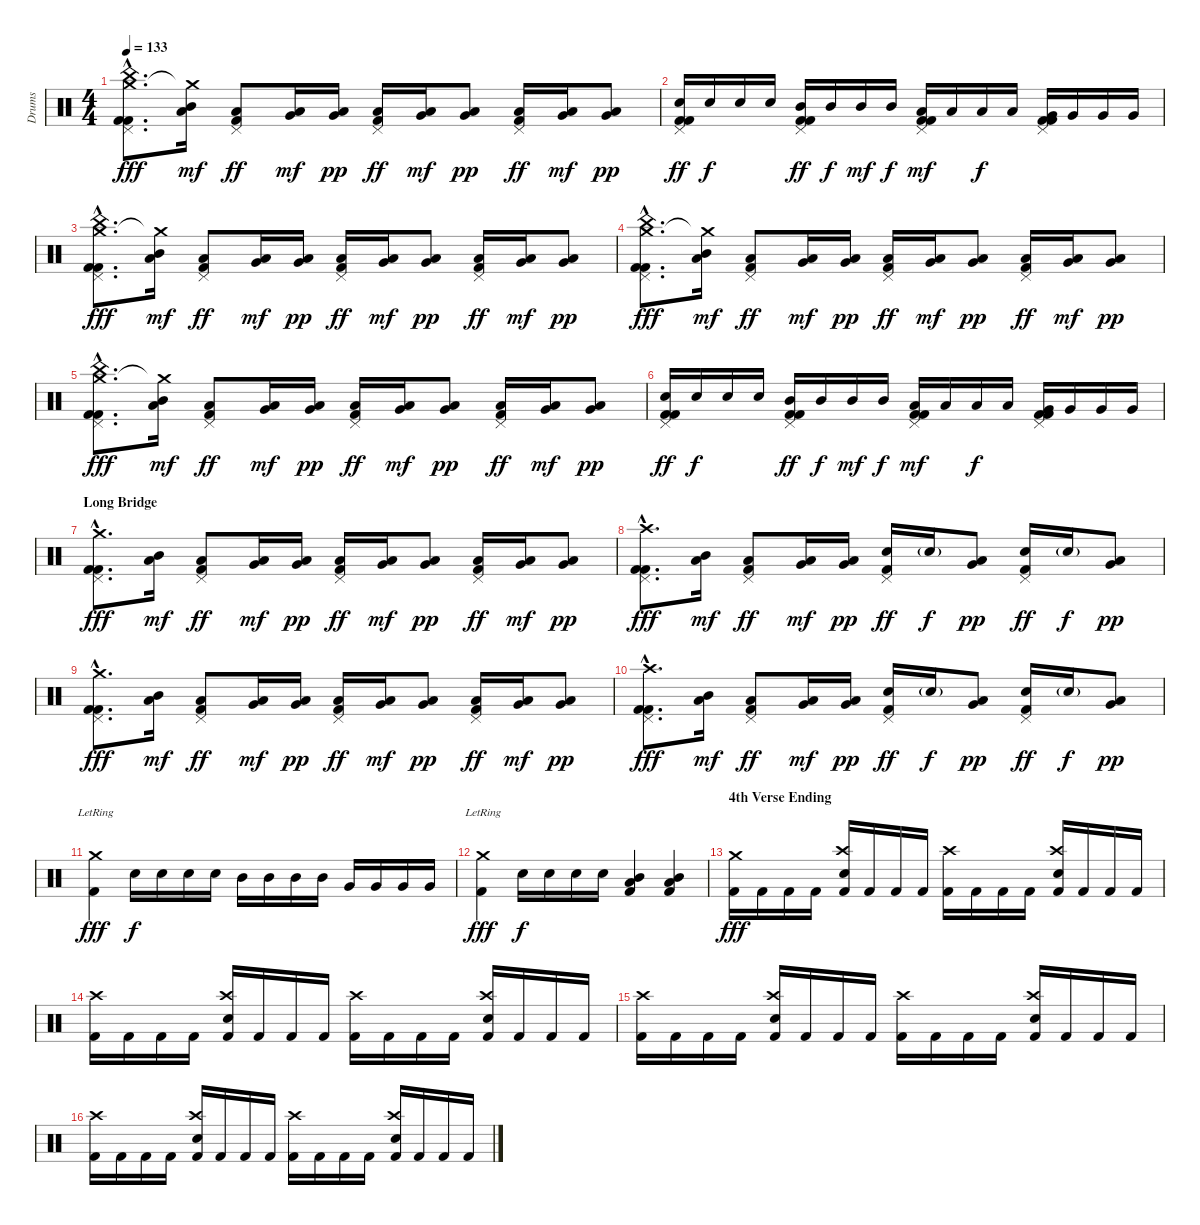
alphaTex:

\track ("Drums" "Drums") {instrument percussion}
\staff {score}
\articulation defaults
\ts (4 4)
\tempo 133
\clef neutral
\ks c
("Crash medium (hit)"{hac} "China (hit)"{hac} "Pedal Hi-Hat (hit)"{hac} "Kick (hit) 2"{hac} "Kick (hit) 2"{hac}).8{d dy fff} ("Crash medium (hit)"{t} "Mid Tom (hit)" "Low Tom (hit)").16{dy mf} ("Pedal Hi-Hat (hit)" "Low Tom (hit)" "Kick (hit) 2").8{dy ff} ("Low Tom (hit)" "Very Low Tom (hit)").16{dy mf} ("Low Tom (hit)" "Very Low Tom (hit)").16{dy pp} ("Pedal Hi-Hat (hit)" "Low Tom (hit)" "Kick (hit) 2").16{dy ff} ("Low Tom (hit)" "Very Low Tom (hit)").16{dy mf} ("Low Tom (hit)" "Very Low Tom (hit)").8{dy pp} ("Pedal Hi-Hat (hit)" "Low Tom (hit)" "Kick (hit) 2").16{dy ff} ("Low Tom (hit)" "Very Low Tom (hit)").16{dy mf} ("Low Tom (hit)" "Very Low Tom (hit)").8{dy pp} |
("Pedal Hi-Hat (hit)" "Electric Snare (hit)" "Kick (hit) 2" "Kick (hit) 2").16{dy ff} "Electric Snare (hit)".16{dy f} "Electric Snare (hit)".16 "Electric Snare (hit)".16 ("Pedal Hi-Hat (hit)" "Mid Tom (hit)" "Kick (hit) 2" "Kick (hit) 2").16{dy ff} "Mid Tom (hit)".16{dy f} "Mid Tom (hit)".16{dy mf} "Mid Tom (hit)".16{dy f} ("Pedal Hi-Hat (hit)" "Low Tom (hit)" "Kick (hit) 2" "Kick (hit) 2").16{dy mf} "Low Tom (hit)".16 "Low Tom (hit)".16{dy f} "Low Tom (hit)".16 ("Pedal Hi-Hat (hit)" "Very Low Tom (hit)" "Kick (hit) 2" "Kick (hit) 2").16 "Very Low Tom (hit)".16 "Very Low Tom (hit)".16 "Very Low Tom (hit)".16 |
("Crash medium (hit)"{hac} "China (hit)"{hac} "Pedal Hi-Hat (hit)"{hac} "Kick (hit) 2"{hac} "Kick (hit) 2"{hac}).8{d dy fff} ("Crash medium (hit)"{t} "Mid Tom (hit)" "Low Tom (hit)").16{dy mf} ("Pedal Hi-Hat (hit)" "Low Tom (hit)" "Kick (hit) 2").8{dy ff} ("Low Tom (hit)" "Very Low Tom (hit)").16{dy mf} ("Low Tom (hit)" "Very Low Tom (hit)").16{dy pp} ("Pedal Hi-Hat (hit)" "Low Tom (hit)" "Kick (hit) 2").16{dy ff} ("Low Tom (hit)" "Very Low Tom (hit)").16{dy mf} ("Low Tom (hit)" "Very Low Tom (hit)").8{dy pp} ("Pedal Hi-Hat (hit)" "Low Tom (hit)" "Kick (hit) 2").16{dy ff} ("Low Tom (hit)" "Very Low Tom (hit)").16{dy mf} ("Low Tom (hit)" "Very Low Tom (hit)").8{dy pp} |
("Crash medium (hit)"{hac} "China (hit)"{hac} "Pedal Hi-Hat (hit)"{hac} "Kick (hit) 2"{hac} "Kick (hit) 2"{hac}).8{d dy fff} ("Crash medium (hit)"{t} "Mid Tom (hit)" "Low Tom (hit)").16{dy mf} ("Pedal Hi-Hat (hit)" "Low Tom (hit)" "Kick (hit) 2").8{dy ff} ("Low Tom (hit)" "Very Low Tom (hit)").16{dy mf} ("Low Tom (hit)" "Very Low Tom (hit)").16{dy pp} ("Pedal Hi-Hat (hit)" "Low Tom (hit)" "Kick (hit) 2").16{dy ff} ("Low Tom (hit)" "Very Low Tom (hit)").16{dy mf} ("Low Tom (hit)" "Very Low Tom (hit)").8{dy pp} ("Pedal Hi-Hat (hit)" "Low Tom (hit)" "Kick (hit) 2").16{dy ff} ("Low Tom (hit)" "Very Low Tom (hit)").16{dy mf} ("Low Tom (hit)" "Very Low Tom (hit)").8{dy pp} |
("Crash medium (hit)"{hac} "China (hit)"{hac} "Pedal Hi-Hat (hit)"{hac} "Kick (hit) 2"{hac} "Kick (hit) 2"{hac}).8{d dy fff} ("Crash medium (hit)"{t} "Mid Tom (hit)" "Low Tom (hit)").16{dy mf} ("Pedal Hi-Hat (hit)" "Low Tom (hit)" "Kick (hit) 2").8{dy ff} ("Low Tom (hit)" "Very Low Tom (hit)").16{dy mf} ("Low Tom (hit)" "Very Low Tom (hit)").16{dy pp} ("Pedal Hi-Hat (hit)" "Low Tom (hit)" "Kick (hit) 2").16{dy ff} ("Low Tom (hit)" "Very Low Tom (hit)").16{dy mf} ("Low Tom (hit)" "Very Low Tom (hit)").8{dy pp} ("Pedal Hi-Hat (hit)" "Low Tom (hit)" "Kick (hit) 2").16{dy ff} ("Low Tom (hit)" "Very Low Tom (hit)").16{dy mf} ("Low Tom (hit)" "Very Low Tom (hit)").8{dy pp} |
("Pedal Hi-Hat (hit)" "Electric Snare (hit)" "Kick (hit) 2" "Kick (hit) 2").16{dy ff} "Electric Snare (hit)".16{dy f} "Electric Snare (hit)".16 "Electric Snare (hit)".16 ("Pedal Hi-Hat (hit)" "Mid Tom (hit)" "Kick (hit) 2" "Kick (hit) 2").16{dy ff} "Mid Tom (hit)".16{dy f} "Mid Tom (hit)".16{dy mf} "Mid Tom (hit)".16{dy f} ("Pedal Hi-Hat (hit)" "Low Tom (hit)" "Kick (hit) 2" "Kick (hit) 2").16{dy mf} "Low Tom (hit)".16 "Low Tom (hit)".16{dy f} "Low Tom (hit)".16 ("Pedal Hi-Hat (hit)" "Very Low Tom (hit)" "Kick (hit) 2" "Kick (hit) 2").16 "Very Low Tom (hit)".16 "Very Low Tom (hit)".16 "Very Low Tom (hit)".16 |
\section ("" "Long Bridge")
("Crash medium (hit)"{hac} "Pedal Hi-Hat (hit)"{hac} "Kick (hit) 2"{hac} "Kick (hit) 2"{hac}).8{d dy fff} ("Mid Tom (hit)" "Low Tom (hit)").16{dy mf} ("Pedal Hi-Hat (hit)" "Low Tom (hit)" "Kick (hit) 2").8{dy ff} ("Low Tom (hit)" "Very Low Tom (hit)").16{dy mf} ("Low Tom (hit)" "Very Low Tom (hit)").16{dy pp} ("Pedal Hi-Hat (hit)" "Low Tom (hit)" "Kick (hit) 2").16{dy ff} ("Low Tom (hit)" "Very Low Tom (hit)").16{dy mf} ("Low Tom (hit)" "Very Low Tom (hit)").8{dy pp} ("Pedal Hi-Hat (hit)" "Low Tom (hit)" "Kick (hit) 2").16{dy ff} ("Low Tom (hit)" "Very Low Tom (hit)").16{dy mf} ("Low Tom (hit)" "Very Low Tom (hit)").8{dy pp} |
("Crash high (hit)"{hac} "Pedal Hi-Hat (hit)"{hac} "Kick (hit) 2"{hac} "Kick (hit) 2"{hac}).8{d dy fff} ("Mid Tom (hit)" "Low Tom (hit)").16{dy mf} ("Pedal Hi-Hat (hit)" "Low Tom (hit)" "Kick (hit) 2").8{dy ff} ("Low Tom (hit)" "Very Low Tom (hit)").16{dy mf} ("Low Tom (hit)" "Very Low Tom (hit)").16{dy pp} ("Pedal Hi-Hat (hit)" "Electric Snare (hit)" "Kick (hit) 2").16{dy ff} "Electric Snare (hit)"{g}.16{dy f} ("Low Tom (hit)" "Very Low Tom (hit)").8{dy pp} ("Pedal Hi-Hat (hit)" "Electric Snare (hit)" "Kick (hit) 2").16{dy ff} "Electric Snare (hit)"{g}.16{dy f} ("Low Tom (hit)" "Very Low Tom (hit)").8{dy pp} |
("Crash medium (hit)"{hac} "Pedal Hi-Hat (hit)"{hac} "Kick (hit) 2"{hac} "Kick (hit) 2"{hac}).8{d dy fff} ("Mid Tom (hit)" "Low Tom (hit)").16{dy mf} ("Pedal Hi-Hat (hit)" "Low Tom (hit)" "Kick (hit) 2").8{dy ff} ("Low Tom (hit)" "Very Low Tom (hit)").16{dy mf} ("Low Tom (hit)" "Very Low Tom (hit)").16{dy pp} ("Pedal Hi-Hat (hit)" "Low Tom (hit)" "Kick (hit) 2").16{dy ff} ("Low Tom (hit)" "Very Low Tom (hit)").16{dy mf} ("Low Tom (hit)" "Very Low Tom (hit)").8{dy pp} ("Pedal Hi-Hat (hit)" "Low Tom (hit)" "Kick (hit) 2").16{dy ff} ("Low Tom (hit)" "Very Low Tom (hit)").16{dy mf} ("Low Tom (hit)" "Very Low Tom (hit)").8{dy pp} |
("Crash high (hit)"{hac} "Pedal Hi-Hat (hit)"{hac} "Kick (hit) 2"{hac} "Kick (hit) 2"{hac}).8{d dy fff} ("Mid Tom (hit)" "Low Tom (hit)").16{dy mf} ("Pedal Hi-Hat (hit)" "Low Tom (hit)" "Kick (hit) 2").8{dy ff} ("Low Tom (hit)" "Very Low Tom (hit)").16{dy mf} ("Low Tom (hit)" "Very Low Tom (hit)").16{dy pp} ("Pedal Hi-Hat (hit)" "Electric Snare (hit)" "Kick (hit) 2").16{dy ff} "Electric Snare (hit)"{g}.16{dy f} ("Low Tom (hit)" "Very Low Tom (hit)").8{dy pp} ("Pedal Hi-Hat (hit)" "Electric Snare (hit)" "Kick (hit) 2").16{dy ff} "Electric Snare (hit)"{g}.16{dy f} ("Low Tom (hit)" "Very Low Tom (hit)").8{dy pp} |
("Crash medium (hit)"{lr} "Kick (hit) 2").4{dy fff} "Snare (hit) 2".16{dy f} "Snare (hit) 2".16 "Snare (hit) 2".16 "Snare (hit) 2".16 "Mid Tom (hit)".16 "Mid Tom (hit)".16 "Mid Tom (hit)".16 "Mid Tom (hit)".16 "Very Low Tom (hit)".16 "Very Low Tom (hit)".16 "Very Low Tom (hit)".16 "Very Low Tom (hit)".16 |
("Crash medium (hit)"{lr} "Kick (hit) 2").4{dy fff} "Snare (hit) 2".16{dy f} "Snare (hit) 2".16 "Snare (hit) 2".16 "Snare (hit) 2".16 ("Mid Tom (hit)" "Low Tom (hit)" "Kick (hit) 2").4 ("Mid Tom (hit)" "Low Tom (hit)" "Kick (hit) 2").4 |
\section ("" "4th Verse Ending")
("Crash medium (hit)" "Kick (hit) 2").16{dy fff} "Kick (hit) 2".16 "Kick (hit) 2".16 "Kick (hit) 2".16 ("Crash high (hit)" "Snare (hit) 2" "Kick (hit) 2").16 "Kick (hit) 2".16 "Kick (hit) 2".16 "Kick (hit) 2".16 ("Crash high (hit)" "Kick (hit) 2").16 "Kick (hit) 2".16 "Kick (hit) 2".16 "Kick (hit) 2".16 ("Crash high (hit)" "Snare (hit) 2" "Kick (hit) 2").16 "Kick (hit) 2".16 "Kick (hit) 2".16 "Kick (hit) 2".16 |
("Crash high (hit)" "Kick (hit) 2").16 "Kick (hit) 2".16 "Kick (hit) 2".16 "Kick (hit) 2".16 ("Crash high (hit)" "Snare (hit) 2" "Kick (hit) 2").16 "Kick (hit) 2".16 "Kick (hit) 2".16 "Kick (hit) 2".16 ("Crash high (hit)" "Kick (hit) 2").16 "Kick (hit) 2".16 "Kick (hit) 2".16 "Kick (hit) 2".16 ("Crash high (hit)" "Snare (hit) 2" "Kick (hit) 2").16 "Kick (hit) 2".16 "Kick (hit) 2".16 "Kick (hit) 2".16 |
("Crash high (hit)" "Kick (hit) 2").16 "Kick (hit) 2".16 "Kick (hit) 2".16 "Kick (hit) 2".16 ("Crash high (hit)" "Snare (hit) 2" "Kick (hit) 2").16 "Kick (hit) 2".16 "Kick (hit) 2".16 "Kick (hit) 2".16 ("Crash high (hit)" "Kick (hit) 2").16 "Kick (hit) 2".16 "Kick (hit) 2".16 "Kick (hit) 2".16 ("Crash high (hit)" "Snare (hit) 2" "Kick (hit) 2").16 "Kick (hit) 2".16 "Kick (hit) 2".16 "Kick (hit) 2".16 |
("Crash high (hit)" "Kick (hit) 2").16 "Kick (hit) 2".16 "Kick (hit) 2".16 "Kick (hit) 2".16 ("Crash high (hit)" "Snare (hit) 2" "Kick (hit) 2").16 "Kick (hit) 2".16 "Kick (hit) 2".16 "Kick (hit) 2".16 ("Crash high (hit)" "Kick (hit) 2").16 "Kick (hit) 2".16 "Kick (hit) 2".16 "Kick (hit) 2".16 ("Crash high (hit)" "Snare (hit) 2" "Kick (hit) 2").16 "Kick (hit) 2".16 "Kick (hit) 2".16 "Kick (hit) 2".16
